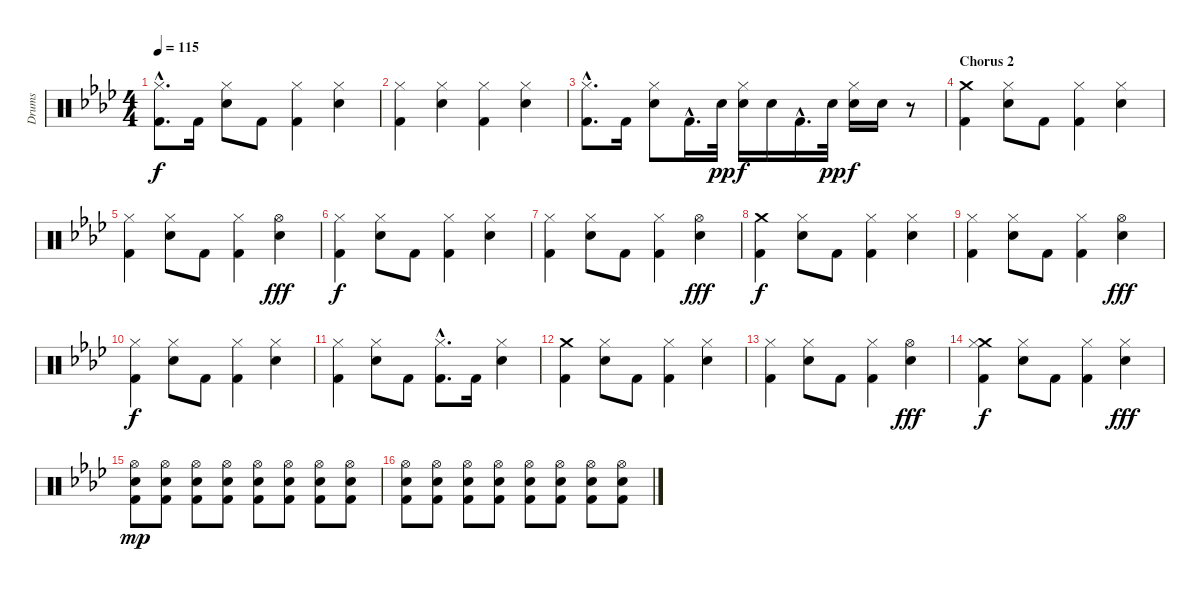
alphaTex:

\track ("Drums" "Drums") {instrument percussion}
\staff {score}
\articulation defaults
\ts (4 4)
\tempo 115
\clef neutral
\ks ab
("Hi-Hat (closed)"{hac} "Kick (hit) 2"{hac}).8{d dy f} "Kick (hit) 2".16 ("Hi-Hat (closed)" "Snare (hit) 2").8 "Kick (hit) 2".8 ("Hi-Hat (closed)" "Kick (hit) 2").4 ("Hi-Hat (closed)" "Snare (hit) 2").4 |
("Hi-Hat (closed)" "Kick (hit) 2").4 ("Hi-Hat (closed)" "Snare (hit) 2").4 ("Hi-Hat (closed)" "Kick (hit) 2").4 ("Hi-Hat (closed)" "Snare (hit) 2").4 |
("Hi-Hat (closed)"{hac} "Kick (hit) 2"{hac}).8{d} "Kick (hit) 2".16 ("Hi-Hat (closed)" "Snare (hit) 2").8 "Kick (hit) 2"{hac}.16{d} "Snare (hit) 2".32{dy pp} ("Hi-Hat (closed)" "Snare (hit) 2").16{dy f} "Snare (hit) 2".16 "Kick (hit) 2"{hac}.16{d} "Snare (hit) 2".32{dy pp} ("Hi-Hat (closed)" "Snare (hit) 2").16{dy f} "Snare (hit) 2".16 r.8 |
\section ("" "Chorus 2")
("Crash medium (hit)" "Kick (hit) 2").4 ("Hi-Hat (closed)" "Snare (hit) 2").8 "Kick (hit) 2".8 ("Hi-Hat (closed)" "Kick (hit) 2").4 ("Hi-Hat (closed)" "Snare (hit) 2").4 |
("Hi-Hat (closed)" "Kick (hit) 2").4 ("Hi-Hat (closed)" "Snare (hit) 2").8 "Kick (hit) 2".8 ("Hi-Hat (closed)" "Kick (hit) 2").4 ("Hi-Hat (open)" "Snare (hit) 2").4{dy fff} |
("Hi-Hat (closed)" "Kick (hit) 2").4{dy f} ("Hi-Hat (closed)" "Snare (hit) 2").8 "Kick (hit) 2".8 ("Hi-Hat (closed)" "Kick (hit) 2").4 ("Hi-Hat (closed)" "Snare (hit) 2").4 |
("Hi-Hat (closed)" "Kick (hit) 2").4 ("Hi-Hat (closed)" "Snare (hit) 2").8 "Kick (hit) 2".8 ("Hi-Hat (closed)" "Kick (hit) 2").4 ("Hi-Hat (open)" "Snare (hit) 2").4{dy fff} |
("Crash medium (hit)" "Kick (hit) 2").4{dy f} ("Hi-Hat (closed)" "Snare (hit) 2").8 "Kick (hit) 2".8 ("Hi-Hat (closed)" "Kick (hit) 2").4 ("Hi-Hat (closed)" "Snare (hit) 2").4 |
("Hi-Hat (closed)" "Kick (hit) 2").4 ("Hi-Hat (closed)" "Snare (hit) 2").8 "Kick (hit) 2".8 ("Hi-Hat (closed)" "Kick (hit) 2").4 ("Hi-Hat (open)" "Snare (hit) 2").4{dy fff} |
("Hi-Hat (closed)" "Kick (hit) 2").4{dy f} ("Hi-Hat (closed)" "Snare (hit) 2").8 "Kick (hit) 2".8 ("Hi-Hat (closed)" "Kick (hit) 2").4 ("Hi-Hat (closed)" "Snare (hit) 2").4 |
("Hi-Hat (closed)" "Kick (hit) 2").4 ("Hi-Hat (closed)" "Snare (hit) 2").8 "Kick (hit) 2".8 ("Hi-Hat (closed)"{hac} "Kick (hit) 2"{hac}).8{d} "Kick (hit) 2".16 ("Hi-Hat (closed)" "Snare (hit) 2").4 |
("Crash medium (hit)" "Kick (hit) 2").4 ("Hi-Hat (closed)" "Snare (hit) 2").8 "Kick (hit) 2".8 ("Hi-Hat (closed)" "Kick (hit) 2").4 ("Hi-Hat (closed)" "Snare (hit) 2").4 |
("Hi-Hat (closed)" "Kick (hit) 2").4 ("Hi-Hat (closed)" "Snare (hit) 2").8 "Kick (hit) 2".8 ("Hi-Hat (closed)" "Kick (hit) 2").4 ("Hi-Hat (open)" "Snare (hit) 2").4{dy fff} |
("Crash medium (hit)" "Hi-Hat (closed)" "Kick (hit) 2").4{dy f} ("Hi-Hat (closed)" "Snare (hit) 2").8 "Kick (hit) 2".8 ("Hi-Hat (closed)" "Kick (hit) 2").4 ("Hi-Hat (closed)" "Snare (hit) 2").4{dy fff} |
("Hi-Hat (open)" "Snare (hit) 2" "Kick (hit) 2").8{dy mp} ("Hi-Hat (open)" "Snare (hit) 2" "Kick (hit) 2").8 ("Hi-Hat (open)" "Snare (hit) 2" "Kick (hit) 2").8 ("Hi-Hat (open)" "Snare (hit) 2" "Kick (hit) 2").8 ("Hi-Hat (open)" "Snare (hit) 2" "Kick (hit) 2").8 ("Hi-Hat (open)" "Snare (hit) 2" "Kick (hit) 2").8 ("Hi-Hat (open)" "Snare (hit) 2" "Kick (hit) 2").8 ("Hi-Hat (open)" "Snare (hit) 2" "Kick (hit) 2").8 |
("Hi-Hat (open)" "Snare (hit) 2" "Kick (hit) 2").8 ("Hi-Hat (open)" "Snare (hit) 2" "Kick (hit) 2").8 ("Hi-Hat (open)" "Snare (hit) 2" "Kick (hit) 2").8 ("Hi-Hat (open)" "Snare (hit) 2" "Kick (hit) 2").8 ("Hi-Hat (open)" "Snare (hit) 2" "Kick (hit) 2").8 ("Hi-Hat (open)" "Snare (hit) 2" "Kick (hit) 2").8 ("Hi-Hat (open)" "Snare (hit) 2" "Kick (hit) 2").8 ("Hi-Hat (open)" "Snare (hit) 2" "Kick (hit) 2").8
